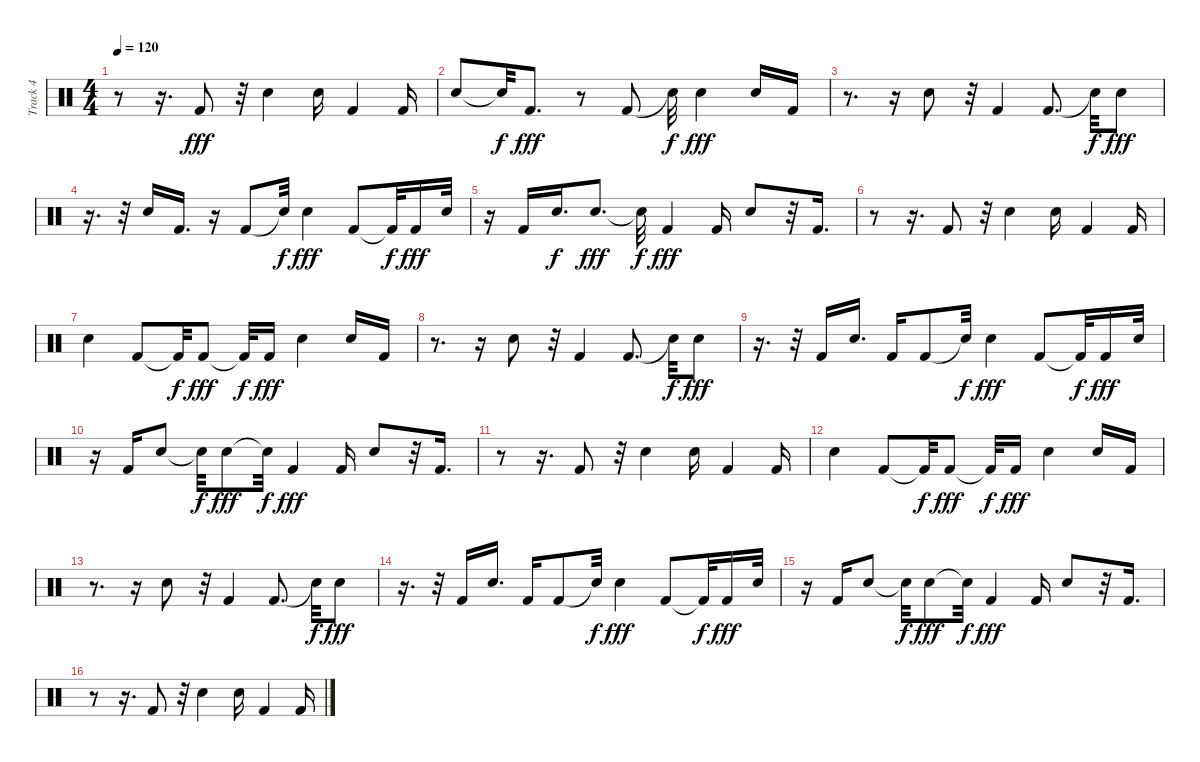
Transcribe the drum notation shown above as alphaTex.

\track ("Track 4" "Track 4") {instrument percussion}
\staff {score}
\articulation defaults
\ts (4 4)
\tempo 120
\clef neutral
\ks c
r.8{dy fff} r.16{d} "Kick (hit) 2".8 r.32 "Snare (hit) 2".4 "Snare (hit) 2".16 "Kick (hit) 2".4 "Kick (hit) 2".16 |
"Snare (hit) 2".8 "Snare (hit)"{t}.32{dy f} "Kick (hit) 2".8{d dy fff} r.8 "Kick (hit) 2".8 "Snare (hit)"{t}.32{dy f} "Snare (hit) 2".4{dy fff} "Snare (hit) 2".16 "Kick (hit) 2".16 |
r.8{d} r.16 "Snare (hit) 2".8 r.32 "Kick (hit) 2".4 "Kick (hit) 2".8{d} "Snare (hit)"{t}.32{dy f} "Snare (hit) 2".8{dy fff} |
r.16{d} r.32 "Snare (hit) 2".16 "Kick (hit) 2".16{d} r.16 "Kick (hit) 2".8 "Snare (hit)"{t}.32{dy f} "Snare (hit) 2".4{dy fff} "Kick (hit) 2".8 "Kick (hit) 2"{t}.32{dy f} "Kick (hit) 2".16{dy fff} "Snare (hit) 2".32 |
r.16 "Kick (hit) 2".16 "Snare (hit) 2".16{d dy f} "Snare (hit) 2".8{d dy fff} "Snare (hit)"{t}.32{dy f} "Kick (hit) 2".4{dy fff} "Kick (hit) 2".16 "Snare (hit) 2".8 r.32 "Kick (hit) 2".16{d} |
r.8 r.16{d} "Kick (hit) 2".8 r.32 "Snare (hit) 2".4 "Snare (hit) 2".16 "Kick (hit) 2".4 "Kick (hit) 2".16 |
"Snare (hit) 2".4 "Kick (hit) 2".8 "Kick (hit) 2"{t}.32{dy f} "Kick (hit) 2".8{dy fff} "Kick (hit) 2"{t}.32{dy f} "Kick (hit) 2".16{dy fff} "Snare (hit) 2".4 "Snare (hit) 2".16 "Kick (hit) 2".16 |
r.8{d} r.16 "Snare (hit) 2".8 r.32 "Kick (hit) 2".4 "Kick (hit) 2".8{d} "Snare (hit)"{t}.32{dy f} "Snare (hit) 2".8{dy fff} |
r.16{d} r.32 "Kick (hit) 2".16 "Snare (hit) 2".16{d} "Kick (hit) 2".16 "Kick (hit) 2".8 "Snare (hit)"{t}.32{dy f} "Snare (hit) 2".4{dy fff} "Kick (hit) 2".8 "Kick (hit) 2"{t}.32{dy f} "Kick (hit) 2".16{dy fff} "Snare (hit) 2".32 |
r.16 "Kick (hit) 2".16 "Snare (hit) 2".8 "Snare (hit) 2"{t}.32{dy f} "Snare (hit) 2".8{dy fff} "Snare (hit)"{t}.32{dy f} "Kick (hit) 2".4{dy fff} "Kick (hit) 2".16 "Snare (hit) 2".8 r.32 "Kick (hit) 2".16{d} |
r.8 r.16{d} "Kick (hit) 2".8 r.32 "Snare (hit) 2".4 "Snare (hit) 2".16 "Kick (hit) 2".4 "Kick (hit) 2".16 |
"Snare (hit) 2".4 "Kick (hit) 2".8 "Kick (hit) 2"{t}.32{dy f} "Kick (hit) 2".8{dy fff} "Kick (hit) 2"{t}.32{dy f} "Kick (hit) 2".16{dy fff} "Snare (hit) 2".4 "Snare (hit) 2".16 "Kick (hit) 2".16 |
r.8{d} r.16 "Snare (hit) 2".8 r.32 "Kick (hit) 2".4 "Kick (hit) 2".8{d} "Snare (hit)"{t}.32{dy f} "Snare (hit) 2".8{dy fff} |
r.16{d} r.32 "Kick (hit) 2".16 "Snare (hit) 2".16{d} "Kick (hit) 2".16 "Kick (hit) 2".8 "Snare (hit)"{t}.32{dy f} "Snare (hit) 2".4{dy fff} "Kick (hit) 2".8 "Kick (hit) 2"{t}.32{dy f} "Kick (hit) 2".16{dy fff} "Snare (hit) 2".32 |
r.16 "Kick (hit) 2".16 "Snare (hit) 2".8 "Snare (hit) 2"{t}.32{dy f} "Snare (hit) 2".8{dy fff} "Snare (hit)"{t}.32{dy f} "Kick (hit) 2".4{dy fff} "Kick (hit) 2".16 "Snare (hit) 2".8 r.32 "Kick (hit) 2".16{d} |
r.8 r.16{d} "Kick (hit) 2".8 r.32 "Snare (hit) 2".4 "Snare (hit) 2".16 "Kick (hit) 2".4 "Kick (hit) 2".16
